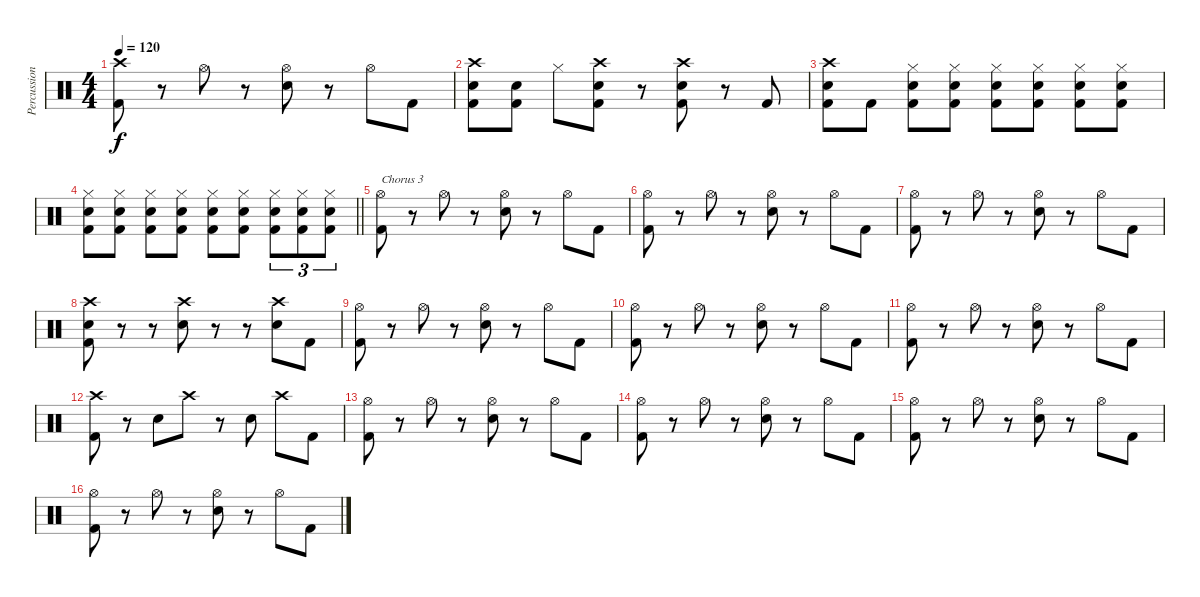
\track ("Percussion" "Percussion") {instrument percussion}
\staff {score}
\articulation defaults
\ts (4 4)
\tempo 120
\clef neutral
\ks c
("Crash high (hit)" "Kick (hit) 2").8{dy f} r.8 "Hi-Hat (open)".8 r.8 ("Hi-Hat (open)" "Snare (hit) 2").8 r.8 "Hi-Hat (open)".8 "Kick (hit) 2".8 |
("Crash high (hit)" "Snare (hit) 2" "Kick (hit) 2").8 ("Snare (hit) 2" "Kick (hit) 2").8 "Hi-Hat (closed)".8 ("Crash high (hit)" "Snare (hit) 2" "Kick (hit) 2").8 r.8 ("Crash high (hit)" "Snare (hit) 2" "Kick (hit) 2").8 r.8 "Kick (hit) 2".8 |
("Crash high (hit)" "Snare (hit) 2" "Kick (hit) 2").8 "Kick (hit) 2".8 ("Hi-Hat (closed)" "Snare (hit) 2" "Kick (hit) 2").8 ("Hi-Hat (closed)" "Snare (hit) 2" "Kick (hit) 2").8 ("Hi-Hat (closed)" "Snare (hit) 2" "Kick (hit) 2").8 ("Hi-Hat (closed)" "Snare (hit) 2" "Kick (hit) 2").8 ("Hi-Hat (closed)" "Snare (hit) 2" "Kick (hit) 2").8 ("Hi-Hat (closed)" "Snare (hit) 2" "Kick (hit) 2").8 |
\barLineRight lightlight
("Hi-Hat (closed)" "Snare (hit) 2" "Kick (hit) 2").8 ("Hi-Hat (closed)" "Snare (hit) 2" "Kick (hit) 2").8 ("Hi-Hat (closed)" "Snare (hit) 2" "Kick (hit) 2").8 ("Hi-Hat (closed)" "Snare (hit) 2" "Kick (hit) 2").8 ("Hi-Hat (closed)" "Snare (hit) 2" "Kick (hit) 2").8 ("Hi-Hat (closed)" "Snare (hit) 2" "Kick (hit) 2").8 ("Hi-Hat (closed)" "Snare (hit) 2" "Kick (hit) 2").8{tu (3 2)} ("Hi-Hat (closed)" "Snare (hit) 2" "Kick (hit) 2").8{tu (3 2)} ("Hi-Hat (closed)" "Snare (hit) 2" "Kick (hit) 2").8{tu (3 2)} |
("Hi-Hat (open)" "Kick (hit) 2").8{txt "Chorus 3"} r.8 "Hi-Hat (open)".8 r.8 ("Hi-Hat (open)" "Snare (hit) 2").8 r.8 "Hi-Hat (open)".8 "Kick (hit) 2".8 |
("Hi-Hat (open)" "Kick (hit) 2").8 r.8 "Hi-Hat (open)".8 r.8 ("Hi-Hat (open)" "Snare (hit) 2").8 r.8 "Hi-Hat (open)".8 "Kick (hit) 2".8 |
("Hi-Hat (open)" "Kick (hit) 2").8 r.8 "Hi-Hat (open)".8 r.8 ("Hi-Hat (open)" "Snare (hit) 2").8 r.8 "Hi-Hat (open)".8 "Kick (hit) 2".8 |
("Crash high (hit)" "Snare (hit) 2" "Kick (hit) 2").8 r.8 r.8 ("Crash high (hit)" "Snare (hit) 2").8 r.8 r.8 ("Crash high (hit)" "Snare (hit) 2").8 "Kick (hit) 2".8 |
("Hi-Hat (open)" "Kick (hit) 2").8 r.8 "Hi-Hat (open)".8 r.8 ("Hi-Hat (open)" "Snare (hit) 2").8 r.8 "Hi-Hat (open)".8 "Kick (hit) 2".8 |
("Hi-Hat (open)" "Kick (hit) 2").8 r.8 "Hi-Hat (open)".8 r.8 ("Hi-Hat (open)" "Snare (hit) 2").8 r.8 "Hi-Hat (open)".8 "Kick (hit) 2".8 |
("Hi-Hat (open)" "Kick (hit) 2").8 r.8 "Hi-Hat (open)".8 r.8 ("Hi-Hat (open)" "Snare (hit) 2").8 r.8 "Hi-Hat (open)".8 "Kick (hit) 2".8 |
("Crash high (hit)" "Kick (hit) 2").8 r.8 "Snare (hit) 2".8 "Crash high (hit)".8 r.8 "Snare (hit) 2".8 "Crash high (hit)".8 "Kick (hit) 2".8 |
("Hi-Hat (open)" "Kick (hit) 2").8 r.8 "Hi-Hat (open)".8 r.8 ("Hi-Hat (open)" "Snare (hit) 2").8 r.8 "Hi-Hat (open)".8 "Kick (hit) 2".8 |
("Hi-Hat (open)" "Kick (hit) 2").8 r.8 "Hi-Hat (open)".8 r.8 ("Hi-Hat (open)" "Snare (hit) 2").8 r.8 "Hi-Hat (open)".8 "Kick (hit) 2".8 |
("Hi-Hat (open)" "Kick (hit) 2").8 r.8 "Hi-Hat (open)".8 r.8 ("Hi-Hat (open)" "Snare (hit) 2").8 r.8 "Hi-Hat (open)".8 "Kick (hit) 2".8 |
("Hi-Hat (open)" "Kick (hit) 2").8 r.8 "Hi-Hat (open)".8 r.8 ("Hi-Hat (open)" "Snare (hit) 2").8 r.8 "Hi-Hat (open)".8 "Kick (hit) 2".8
